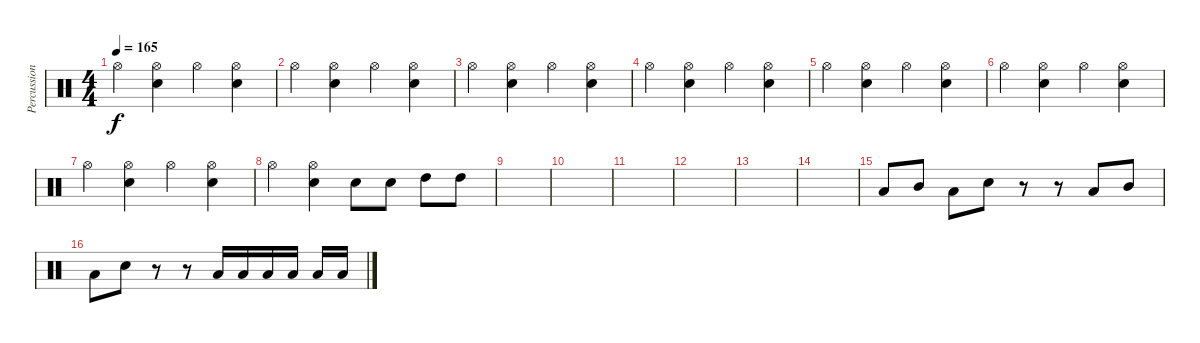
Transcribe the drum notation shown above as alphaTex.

\track ("Percussion" "Percussion") {instrument percussion}
\staff {score}
\articulation defaults
\ts (4 4)
\tempo 165
\clef neutral
\ks c "Hi-Hat (open)".4{dy f}
("Electric Snare (hit)" "Hi-Hat (open)").4 "Hi-Hat (open)".4 ("Electric Snare (hit)" "Hi-Hat (open)").4 |
"Hi-Hat (open)".4 ("Electric Snare (hit)" "Hi-Hat (open)").4 "Hi-Hat (open)".4 ("Electric Snare (hit)" "Hi-Hat (open)").4 |
"Hi-Hat (open)".4 ("Electric Snare (hit)" "Hi-Hat (open)").4 "Hi-Hat (open)".4 ("Electric Snare (hit)" "Hi-Hat (open)").4 |
"Hi-Hat (open)".4 ("Electric Snare (hit)" "Hi-Hat (open)").4 "Hi-Hat (open)".4 ("Electric Snare (hit)" "Hi-Hat (open)").4 |
"Hi-Hat (open)".4 ("Electric Snare (hit)" "Hi-Hat (open)").4 "Hi-Hat (open)".4 ("Electric Snare (hit)" "Hi-Hat (open)").4 |
"Hi-Hat (open)".4 ("Electric Snare (hit)" "Hi-Hat (open)").4 "Hi-Hat (open)".4 ("Electric Snare (hit)" "Hi-Hat (open)").4 |
"Hi-Hat (open)".4 ("Electric Snare (hit)" "Hi-Hat (open)").4 "Hi-Hat (open)".4 ("Electric Snare (hit)" "Hi-Hat (open)").4 |
"Hi-Hat (open)".4 ("Electric Snare (hit)" "Hi-Hat (open)").4 "Electric Snare (hit)".8 "Electric Snare (hit)".8 "High Tom (hit)".8 "High Tom (hit)".8 |
|
|
|
|
|
|
"Low Tom (hit)".8 "Mid Tom (hit)".8 "Low Tom (hit)".8 "Electric Snare (hit)".8 r.8 r.8 "Low Tom (hit)".8 "Mid Tom (hit)".8 |
"Low Tom (hit)".8 "Electric Snare (hit)".8 r.8 r.8 "Low Tom (hit)".16 "Low Tom (hit)".16 "Low Tom (hit)".16 "Low Tom (hit)".16 "Low Tom (hit)".16 "Low Tom (hit)".16
